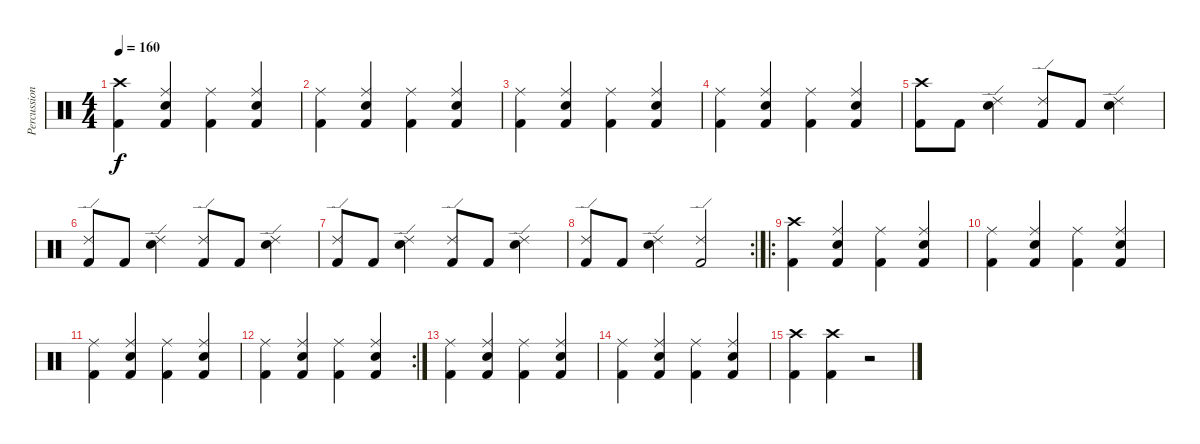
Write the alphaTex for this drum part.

\track ("Percussion" "Percussion") {instrument percussion}
\staff {score}
\articulation defaults
\ts (4 4)
\tempo 160
\clef neutral
\ks c
("Crash high (hit)" "Kick (hit) 2").4{dy f} ("Ride (middle)" "Snare (hit) 2" "Kick (hit) 2").4 ("Ride (middle)" "Kick (hit) 2").4 ("Ride (middle)" "Snare (hit) 2" "Kick (hit) 2").4 |
("Ride (middle)" "Kick (hit) 2").4 ("Ride (middle)" "Snare (hit) 2" "Kick (hit) 2").4 ("Ride (middle)" "Kick (hit) 2").4 ("Ride (middle)" "Snare (hit) 2" "Kick (hit) 2").4 |
("Ride (middle)" "Kick (hit) 2").4 ("Ride (middle)" "Snare (hit) 2" "Kick (hit) 2").4 ("Ride (middle)" "Kick (hit) 2").4 ("Ride (middle)" "Snare (hit) 2" "Kick (hit) 2").4 |
("Ride (middle)" "Kick (hit) 2").4 ("Ride (middle)" "Snare (hit) 2" "Kick (hit) 2").4 ("Ride (middle)" "Kick (hit) 2").4 ("Ride (middle)" "Snare (hit) 2" "Kick (hit) 2").4 |
("Crash high (hit)" "Kick (hit) 2").8 "Kick (hit) 2".8 ("Ride (edge) 2" "Snare (hit) 2").4 ("Ride (edge) 2" "Kick (hit) 2").8 "Kick (hit) 2".8 ("Ride (edge) 2" "Snare (hit) 2").4 |
("Ride (edge) 2" "Kick (hit) 2").8 "Kick (hit) 2".8 ("Ride (edge) 2" "Snare (hit) 2").4 ("Ride (edge) 2" "Kick (hit) 2").8 "Kick (hit) 2".8 ("Ride (edge) 2" "Snare (hit) 2").4 |
("Ride (edge) 2" "Kick (hit) 2").8 "Kick (hit) 2".8 ("Ride (edge) 2" "Snare (hit) 2").4 ("Ride (edge) 2" "Kick (hit) 2").8 "Kick (hit) 2".8 ("Ride (edge) 2" "Snare (hit) 2").4 |
\rc 2
("Ride (edge) 2" "Kick (hit) 2").8 "Kick (hit) 2".8 ("Ride (edge) 2" "Snare (hit) 2").4 ("Ride (edge) 2" "Kick (hit) 2").2 |
\ro
("Crash high (hit)" "Kick (hit) 2").4 ("Ride (middle)" "Snare (hit) 2" "Kick (hit) 2").4 ("Ride (middle)" "Kick (hit) 2").4 ("Ride (middle)" "Snare (hit) 2" "Kick (hit) 2").4 |
("Ride (middle)" "Kick (hit) 2").4 ("Ride (middle)" "Snare (hit) 2" "Kick (hit) 2").4 ("Ride (middle)" "Kick (hit) 2").4 ("Ride (middle)" "Snare (hit) 2" "Kick (hit) 2").4 |
("Ride (middle)" "Kick (hit) 2").4 ("Ride (middle)" "Snare (hit) 2" "Kick (hit) 2").4 ("Ride (middle)" "Kick (hit) 2").4 ("Ride (middle)" "Snare (hit) 2" "Kick (hit) 2").4 |
\rc 2
("Ride (middle)" "Kick (hit) 2").4 ("Ride (middle)" "Snare (hit) 2" "Kick (hit) 2").4 ("Ride (middle)" "Kick (hit) 2").4 ("Ride (middle)" "Snare (hit) 2" "Kick (hit) 2").4 |
("Ride (middle)" "Kick (hit) 2").4 ("Ride (middle)" "Snare (hit) 2" "Kick (hit) 2").4 ("Ride (middle)" "Kick (hit) 2").4 ("Ride (middle)" "Snare (hit) 2" "Kick (hit) 2").4 |
("Ride (middle)" "Kick (hit) 2").4 ("Ride (middle)" "Snare (hit) 2" "Kick (hit) 2").4 ("Ride (middle)" "Kick (hit) 2").4 ("Ride (middle)" "Snare (hit) 2" "Kick (hit) 2").4 |
("Crash high (hit)" "Kick (hit) 2").4 ("Crash high (hit)" "Kick (hit) 2").4 r.2
